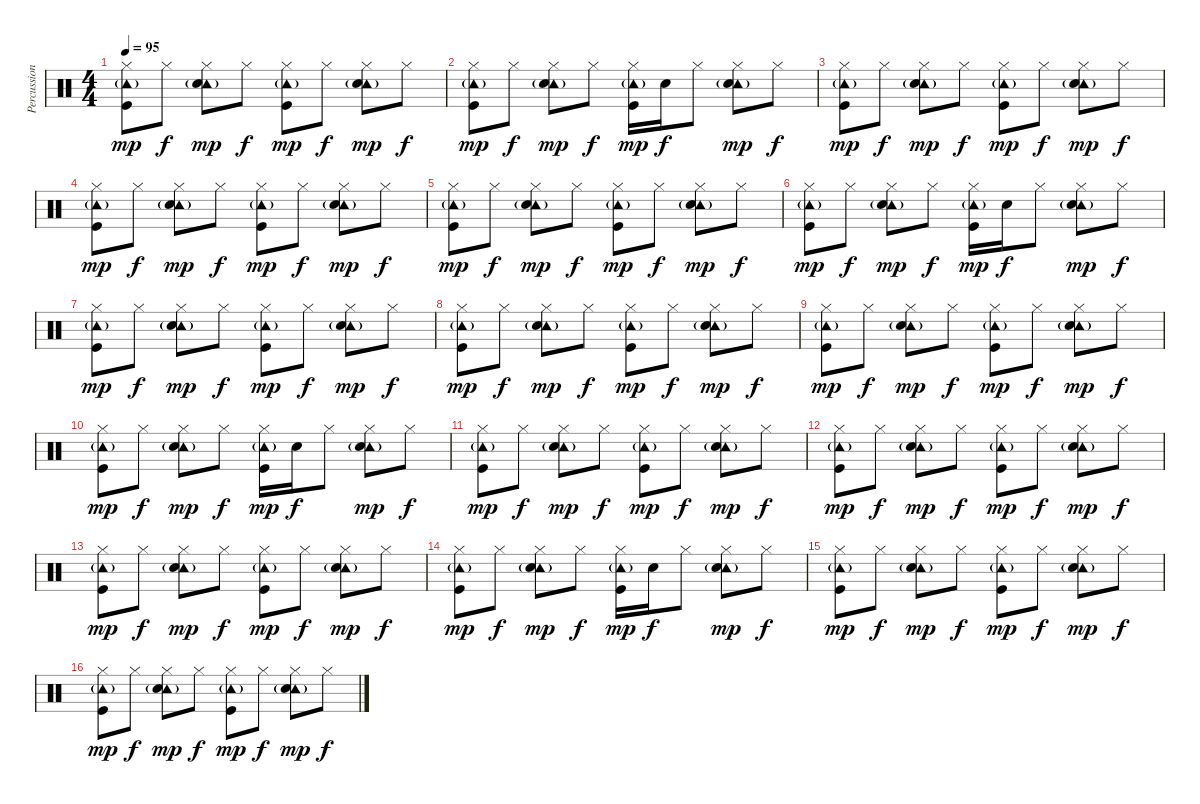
\track ("Percussion" "Percussion") {instrument percussion}
\staff {score}
\articulation defaults
\ts (4 4)
\tempo 95
\clef neutral
\ks c
("Hi-Hat (closed)" "Tambourine (hit)"{g} "Kick (hit)").8{dy mp} "Hi-Hat (closed)".8{dy f} ("Hi-Hat (closed)" "Tambourine (hit)"{g} "Electric Snare (hit)").8{dy mp} "Hi-Hat (closed)".8{dy f} ("Hi-Hat (closed)" "Tambourine (hit)"{g} "Kick (hit)").8{dy mp} "Hi-Hat (closed)".8{dy f} ("Hi-Hat (closed)" "Tambourine (hit)"{g} "Electric Snare (hit)").8{dy mp} "Hi-Hat (closed)".8{dy f} |
("Hi-Hat (closed)" "Tambourine (hit)"{g} "Kick (hit)").8{dy mp} "Hi-Hat (closed)".8{dy f} ("Hi-Hat (closed)" "Tambourine (hit)"{g} "Electric Snare (hit)").8{dy mp} "Hi-Hat (closed)".8{dy f} ("Hi-Hat (closed)" "Tambourine (hit)"{g} "Kick (hit)").16{dy mp} "Electric Snare (hit)".16{dy f} "Hi-Hat (closed)".8 ("Hi-Hat (closed)" "Tambourine (hit)"{g} "Electric Snare (hit)").8{dy mp} "Hi-Hat (closed)".8{dy f} |
("Hi-Hat (closed)" "Tambourine (hit)"{g} "Kick (hit)").8{dy mp} "Hi-Hat (closed)".8{dy f} ("Hi-Hat (closed)" "Tambourine (hit)"{g} "Electric Snare (hit)").8{dy mp} "Hi-Hat (closed)".8{dy f} ("Hi-Hat (closed)" "Tambourine (hit)"{g} "Kick (hit)").8{dy mp} "Hi-Hat (closed)".8{dy f} ("Hi-Hat (closed)" "Tambourine (hit)"{g} "Electric Snare (hit)").8{dy mp} "Hi-Hat (closed)".8{dy f} |
("Hi-Hat (closed)" "Tambourine (hit)"{g} "Kick (hit)").8{dy mp} "Hi-Hat (closed)".8{dy f} ("Hi-Hat (closed)" "Tambourine (hit)"{g} "Electric Snare (hit)").8{dy mp} "Hi-Hat (closed)".8{dy f} ("Hi-Hat (closed)" "Tambourine (hit)"{g} "Kick (hit)").8{dy mp} "Hi-Hat (closed)".8{dy f} ("Hi-Hat (closed)" "Tambourine (hit)"{g} "Electric Snare (hit)").8{dy mp} "Hi-Hat (closed)".8{dy f} |
("Hi-Hat (closed)" "Tambourine (hit)"{g} "Kick (hit)").8{dy mp} "Hi-Hat (closed)".8{dy f} ("Hi-Hat (closed)" "Tambourine (hit)"{g} "Electric Snare (hit)").8{dy mp} "Hi-Hat (closed)".8{dy f} ("Hi-Hat (closed)" "Tambourine (hit)"{g} "Kick (hit)").8{dy mp} "Hi-Hat (closed)".8{dy f} ("Hi-Hat (closed)" "Tambourine (hit)"{g} "Electric Snare (hit)").8{dy mp} "Hi-Hat (closed)".8{dy f} |
("Hi-Hat (closed)" "Tambourine (hit)"{g} "Kick (hit)").8{dy mp} "Hi-Hat (closed)".8{dy f} ("Hi-Hat (closed)" "Tambourine (hit)"{g} "Electric Snare (hit)").8{dy mp} "Hi-Hat (closed)".8{dy f} ("Hi-Hat (closed)" "Tambourine (hit)"{g} "Kick (hit)").16{dy mp} "Electric Snare (hit)".16{dy f} "Hi-Hat (closed)".8 ("Hi-Hat (closed)" "Tambourine (hit)"{g} "Electric Snare (hit)").8{dy mp} "Hi-Hat (closed)".8{dy f} |
("Hi-Hat (closed)" "Tambourine (hit)"{g} "Kick (hit)").8{dy mp} "Hi-Hat (closed)".8{dy f} ("Hi-Hat (closed)" "Tambourine (hit)"{g} "Electric Snare (hit)").8{dy mp} "Hi-Hat (closed)".8{dy f} ("Hi-Hat (closed)" "Tambourine (hit)"{g} "Kick (hit)").8{dy mp} "Hi-Hat (closed)".8{dy f} ("Hi-Hat (closed)" "Tambourine (hit)"{g} "Electric Snare (hit)").8{dy mp} "Hi-Hat (closed)".8{dy f} |
("Hi-Hat (closed)" "Tambourine (hit)"{g} "Kick (hit)").8{dy mp} "Hi-Hat (closed)".8{dy f} ("Hi-Hat (closed)" "Tambourine (hit)"{g} "Electric Snare (hit)").8{dy mp} "Hi-Hat (closed)".8{dy f} ("Hi-Hat (closed)" "Tambourine (hit)"{g} "Kick (hit)").8{dy mp} "Hi-Hat (closed)".8{dy f} ("Hi-Hat (closed)" "Tambourine (hit)"{g} "Electric Snare (hit)").8{dy mp} "Hi-Hat (closed)".8{dy f} |
("Hi-Hat (closed)" "Tambourine (hit)"{g} "Kick (hit)").8{dy mp} "Hi-Hat (closed)".8{dy f} ("Hi-Hat (closed)" "Tambourine (hit)"{g} "Electric Snare (hit)").8{dy mp} "Hi-Hat (closed)".8{dy f} ("Hi-Hat (closed)" "Tambourine (hit)"{g} "Kick (hit)").8{dy mp} "Hi-Hat (closed)".8{dy f} ("Hi-Hat (closed)" "Tambourine (hit)"{g} "Electric Snare (hit)").8{dy mp} "Hi-Hat (closed)".8{dy f} |
("Hi-Hat (closed)" "Tambourine (hit)"{g} "Kick (hit)").8{dy mp} "Hi-Hat (closed)".8{dy f} ("Hi-Hat (closed)" "Tambourine (hit)"{g} "Electric Snare (hit)").8{dy mp} "Hi-Hat (closed)".8{dy f} ("Hi-Hat (closed)" "Tambourine (hit)"{g} "Kick (hit)").16{dy mp} "Electric Snare (hit)".16{dy f} "Hi-Hat (closed)".8 ("Hi-Hat (closed)" "Tambourine (hit)"{g} "Electric Snare (hit)").8{dy mp} "Hi-Hat (closed)".8{dy f} |
("Hi-Hat (closed)" "Tambourine (hit)"{g} "Kick (hit)").8{dy mp} "Hi-Hat (closed)".8{dy f} ("Hi-Hat (closed)" "Tambourine (hit)"{g} "Electric Snare (hit)").8{dy mp} "Hi-Hat (closed)".8{dy f} ("Hi-Hat (closed)" "Tambourine (hit)"{g} "Kick (hit)").8{dy mp} "Hi-Hat (closed)".8{dy f} ("Hi-Hat (closed)" "Tambourine (hit)"{g} "Electric Snare (hit)").8{dy mp} "Hi-Hat (closed)".8{dy f} |
("Hi-Hat (closed)" "Tambourine (hit)"{g} "Kick (hit)").8{dy mp} "Hi-Hat (closed)".8{dy f} ("Hi-Hat (closed)" "Tambourine (hit)"{g} "Electric Snare (hit)").8{dy mp} "Hi-Hat (closed)".8{dy f} ("Hi-Hat (closed)" "Tambourine (hit)"{g} "Kick (hit)").8{dy mp} "Hi-Hat (closed)".8{dy f} ("Hi-Hat (closed)" "Tambourine (hit)"{g} "Electric Snare (hit)").8{dy mp} "Hi-Hat (closed)".8{dy f} |
("Hi-Hat (closed)" "Tambourine (hit)"{g} "Kick (hit)").8{dy mp} "Hi-Hat (closed)".8{dy f} ("Hi-Hat (closed)" "Tambourine (hit)"{g} "Electric Snare (hit)").8{dy mp} "Hi-Hat (closed)".8{dy f} ("Hi-Hat (closed)" "Tambourine (hit)"{g} "Kick (hit)").8{dy mp} "Hi-Hat (closed)".8{dy f} ("Hi-Hat (closed)" "Tambourine (hit)"{g} "Electric Snare (hit)").8{dy mp} "Hi-Hat (closed)".8{dy f} |
("Hi-Hat (closed)" "Tambourine (hit)"{g} "Kick (hit)").8{dy mp} "Hi-Hat (closed)".8{dy f} ("Hi-Hat (closed)" "Tambourine (hit)"{g} "Electric Snare (hit)").8{dy mp} "Hi-Hat (closed)".8{dy f} ("Hi-Hat (closed)" "Tambourine (hit)"{g} "Kick (hit)").16{dy mp} "Electric Snare (hit)".16{dy f} "Hi-Hat (closed)".8 ("Hi-Hat (closed)" "Tambourine (hit)"{g} "Electric Snare (hit)").8{dy mp} "Hi-Hat (closed)".8{dy f} |
("Hi-Hat (closed)" "Tambourine (hit)"{g} "Kick (hit)").8{dy mp} "Hi-Hat (closed)".8{dy f} ("Hi-Hat (closed)" "Tambourine (hit)"{g} "Electric Snare (hit)").8{dy mp} "Hi-Hat (closed)".8{dy f} ("Hi-Hat (closed)" "Tambourine (hit)"{g} "Kick (hit)").8{dy mp} "Hi-Hat (closed)".8{dy f} ("Hi-Hat (closed)" "Tambourine (hit)"{g} "Electric Snare (hit)").8{dy mp} "Hi-Hat (closed)".8{dy f} |
("Hi-Hat (closed)" "Tambourine (hit)"{g} "Kick (hit)").8{dy mp} "Hi-Hat (closed)".8{dy f} ("Hi-Hat (closed)" "Tambourine (hit)"{g} "Electric Snare (hit)").8{dy mp} "Hi-Hat (closed)".8{dy f} ("Hi-Hat (closed)" "Tambourine (hit)"{g} "Kick (hit)").8{dy mp} "Hi-Hat (closed)".8{dy f} ("Hi-Hat (closed)" "Tambourine (hit)"{g} "Electric Snare (hit)").8{dy mp} "Hi-Hat (closed)".8{dy f}
